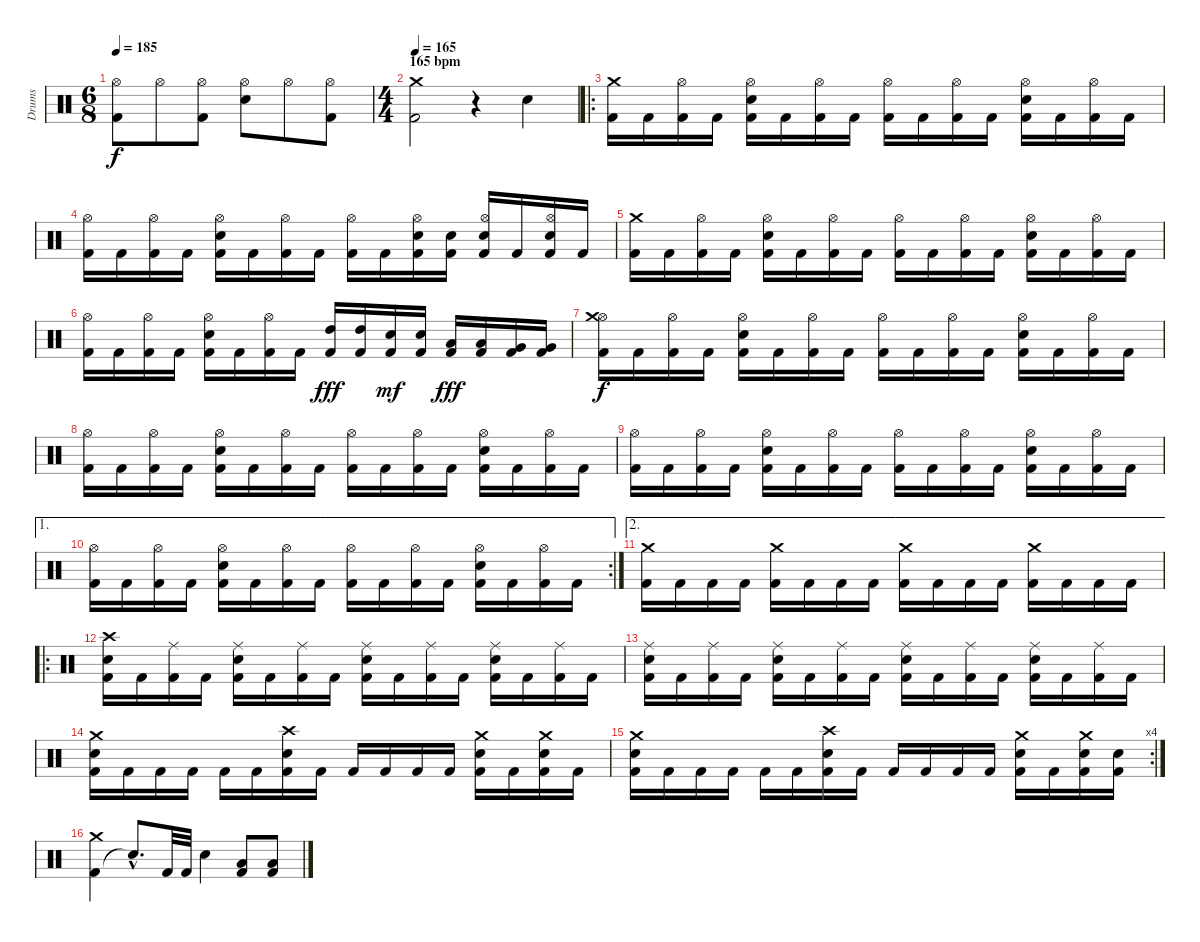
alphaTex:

\track ("Drums" "Drums") {instrument percussion}
\staff {score}
\articulation defaults
\ts (6 8)
\tempo 185
\clef neutral
\ks c
("Kick (hit) 2" "Hi-Hat (open)").8{dy f} "Hi-Hat (open)".8 ("Kick (hit) 2" "Hi-Hat (open)").8 ("Electric Snare (hit)" "Hi-Hat (open)").8 "Hi-Hat (open)".8 ("Kick (hit) 2" "Hi-Hat (open)").8 |
\ts (4 4)
\section ("" "165 bpm")
\tempo 165
("Kick (hit) 2" "Crash medium (hit)").2 r.4 "Electric Snare (hit)".4 |
\ro
("Kick (hit) 2" "Crash medium (hit)").16 "Kick (hit) 2".16 ("Kick (hit) 2" "Hi-Hat (open)").16 "Kick (hit) 2".16 ("Kick (hit) 2" "Electric Snare (hit)" "Hi-Hat (open)").16 "Kick (hit) 2".16 ("Kick (hit) 2" "Hi-Hat (open)").16 "Kick (hit) 2".16 ("Kick (hit) 2" "Hi-Hat (open)").16 "Kick (hit) 2".16 ("Kick (hit) 2" "Hi-Hat (open)").16 "Kick (hit) 2".16 ("Kick (hit) 2" "Electric Snare (hit)" "Hi-Hat (open)").16 "Kick (hit) 2".16 ("Kick (hit) 2" "Hi-Hat (open)").16 "Kick (hit) 2".16 |
("Kick (hit) 2" "Hi-Hat (open)").16 "Kick (hit) 2".16 ("Kick (hit) 2" "Hi-Hat (open)").16 "Kick (hit) 2".16 ("Kick (hit) 2" "Electric Snare (hit)" "Hi-Hat (open)").16 "Kick (hit) 2".16 ("Kick (hit) 2" "Hi-Hat (open)").16 "Kick (hit) 2".16 ("Kick (hit) 2" "Hi-Hat (open)").16 "Kick (hit) 2".16 ("Kick (hit) 2" "Electric Snare (hit)" "Hi-Hat (open)").16 ("Kick (hit) 2" "Electric Snare (hit)").16 ("Kick (hit) 2" "Electric Snare (hit)" "Hi-Hat (open)").16 "Kick (hit) 2".16 ("Kick (hit) 2" "Electric Snare (hit)" "Hi-Hat (open)").16 "Kick (hit) 2".16 |
("Kick (hit) 2" "Crash medium (hit)").16 "Kick (hit) 2".16 ("Kick (hit) 2" "Hi-Hat (open)").16 "Kick (hit) 2".16 ("Kick (hit) 2" "Electric Snare (hit)" "Hi-Hat (open)").16 "Kick (hit) 2".16 ("Kick (hit) 2" "Hi-Hat (open)").16 "Kick (hit) 2".16 ("Kick (hit) 2" "Hi-Hat (open)").16 "Kick (hit) 2".16 ("Kick (hit) 2" "Hi-Hat (open)").16 "Kick (hit) 2".16 ("Kick (hit) 2" "Electric Snare (hit)" "Hi-Hat (open)").16 "Kick (hit) 2".16 ("Kick (hit) 2" "Hi-Hat (open)").16 "Kick (hit) 2".16 |
("Kick (hit) 2" "Hi-Hat (open)").16 "Kick (hit) 2".16 ("Kick (hit) 2" "Hi-Hat (open)").16 "Kick (hit) 2".16 ("Kick (hit) 2" "Electric Snare (hit)" "Hi-Hat (open)").16 "Kick (hit) 2".16 ("Kick (hit) 2" "Hi-Hat (open)").16 "Kick (hit) 2".16 ("Kick (hit) 2" "High Tom (hit)").16{dy fff} ("Kick (hit) 2" "High Tom (hit)").16 ("Kick (hit) 2" "Electric Snare (hit)").16{dy mf} ("Kick (hit) 2" "Electric Snare (hit)").16 ("Kick (hit) 2" "Low Tom (hit)").16{dy fff} ("Kick (hit) 2" "Low Tom (hit)").16 ("Kick (hit) 2" "Very Low Tom (hit)").16 ("Kick (hit) 2" "Very Low Tom (hit)").16 |
("Kick (hit) 2" "Hi-Hat (open)" "Crash medium (hit)").16{dy f} "Kick (hit) 2".16 ("Kick (hit) 2" "Hi-Hat (open)").16 "Kick (hit) 2".16 ("Kick (hit) 2" "Electric Snare (hit)" "Hi-Hat (open)").16 "Kick (hit) 2".16 ("Kick (hit) 2" "Hi-Hat (open)").16 "Kick (hit) 2".16 ("Kick (hit) 2" "Hi-Hat (open)").16 "Kick (hit) 2".16 ("Kick (hit) 2" "Hi-Hat (open)").16 "Kick (hit) 2".16 ("Kick (hit) 2" "Electric Snare (hit)" "Hi-Hat (open)").16 "Kick (hit) 2".16 ("Kick (hit) 2" "Hi-Hat (open)").16 "Kick (hit) 2".16 |
("Kick (hit) 2" "Hi-Hat (open)").16 "Kick (hit) 2".16 ("Kick (hit) 2" "Hi-Hat (open)").16 "Kick (hit) 2".16 ("Kick (hit) 2" "Electric Snare (hit)" "Hi-Hat (open)").16 "Kick (hit) 2".16 ("Kick (hit) 2" "Hi-Hat (open)").16 "Kick (hit) 2".16 ("Kick (hit) 2" "Hi-Hat (open)").16 "Kick (hit) 2".16 ("Kick (hit) 2" "Hi-Hat (open)").16 "Kick (hit) 2".16 ("Kick (hit) 2" "Electric Snare (hit)" "Hi-Hat (open)").16 "Kick (hit) 2".16 ("Kick (hit) 2" "Hi-Hat (open)").16 "Kick (hit) 2".16 |
("Kick (hit) 2" "Hi-Hat (open)").16 "Kick (hit) 2".16 ("Kick (hit) 2" "Hi-Hat (open)").16 "Kick (hit) 2".16 ("Kick (hit) 2" "Electric Snare (hit)" "Hi-Hat (open)").16 "Kick (hit) 2".16 ("Kick (hit) 2" "Hi-Hat (open)").16 "Kick (hit) 2".16 ("Kick (hit) 2" "Hi-Hat (open)").16 "Kick (hit) 2".16 ("Kick (hit) 2" "Hi-Hat (open)").16 "Kick (hit) 2".16 ("Kick (hit) 2" "Electric Snare (hit)" "Hi-Hat (open)").16 "Kick (hit) 2".16 ("Kick (hit) 2" "Hi-Hat (open)").16 "Kick (hit) 2".16 |
\ae 1
\rc 2
("Kick (hit) 2" "Hi-Hat (open)").16 "Kick (hit) 2".16 ("Kick (hit) 2" "Hi-Hat (open)").16 "Kick (hit) 2".16 ("Kick (hit) 2" "Electric Snare (hit)" "Hi-Hat (open)").16 "Kick (hit) 2".16 ("Kick (hit) 2" "Hi-Hat (open)").16 "Kick (hit) 2".16 ("Kick (hit) 2" "Hi-Hat (open)").16 "Kick (hit) 2".16 ("Kick (hit) 2" "Hi-Hat (open)").16 "Kick (hit) 2".16 ("Kick (hit) 2" "Electric Snare (hit)" "Hi-Hat (open)").16 "Kick (hit) 2".16 ("Kick (hit) 2" "Hi-Hat (open)").16 "Kick (hit) 2".16 |
\ae 2
("Kick (hit) 2" "Crash medium (hit)").16 "Kick (hit) 2".16 "Kick (hit) 2".16 "Kick (hit) 2".16 ("Kick (hit) 2" "Crash medium (hit)").16 "Kick (hit) 2".16 "Kick (hit) 2".16 "Kick (hit) 2".16 ("Kick (hit) 2" "Crash medium (hit)").16 "Kick (hit) 2".16 "Kick (hit) 2".16 "Kick (hit) 2".16 ("Kick (hit) 2" "Crash medium (hit)").16 "Kick (hit) 2".16 "Kick (hit) 2".16 "Kick (hit) 2".16 |
\ro
("Kick (hit) 2" "Electric Snare (hit)" "Crash high (hit)").16 "Kick (hit) 2".16 ("Kick (hit) 2" "Ride (middle)").16 "Kick (hit) 2".16 ("Kick (hit) 2" "Electric Snare (hit)" "Ride (middle)").16 "Kick (hit) 2".16 ("Kick (hit) 2" "Ride (middle)").16 "Kick (hit) 2".16 ("Kick (hit) 2" "Electric Snare (hit)" "Ride (middle)").16 "Kick (hit) 2".16 ("Kick (hit) 2" "Ride (middle)").16 "Kick (hit) 2".16 ("Kick (hit) 2" "Electric Snare (hit)" "Ride (middle)").16 "Kick (hit) 2".16 ("Kick (hit) 2" "Ride (middle)").16 "Kick (hit) 2".16 |
("Kick (hit) 2" "Electric Snare (hit)" "Ride (middle)").16 "Kick (hit) 2".16 ("Kick (hit) 2" "Ride (middle)").16 "Kick (hit) 2".16 ("Kick (hit) 2" "Electric Snare (hit)" "Ride (middle)").16 "Kick (hit) 2".16 ("Kick (hit) 2" "Ride (middle)").16 "Kick (hit) 2".16 ("Kick (hit) 2" "Electric Snare (hit)" "Ride (middle)").16 "Kick (hit) 2".16 ("Kick (hit) 2" "Ride (middle)").16 "Kick (hit) 2".16 ("Kick (hit) 2" "Electric Snare (hit)" "Ride (middle)").16 "Kick (hit) 2".16 ("Kick (hit) 2" "Ride (middle)").16 "Kick (hit) 2".16 |
("Kick (hit) 2" "Electric Snare (hit)" "Crash medium (hit)").16 "Kick (hit) 2".16 "Kick (hit) 2".16 "Kick (hit) 2".16 "Kick (hit) 2".16 "Kick (hit) 2".16 ("Kick (hit) 2" "Electric Snare (hit)" "Crash high (hit)").16 "Kick (hit) 2".16 "Kick (hit) 2".16 "Kick (hit) 2".16 "Kick (hit) 2".16 "Kick (hit) 2".16 ("Kick (hit) 2" "Electric Snare (hit)" "Crash medium (hit)").16 "Kick (hit) 2".16 ("Kick (hit) 2" "Electric Snare (hit)" "Crash medium (hit)").16 "Kick (hit) 2".16 |
\rc 4
("Kick (hit) 2" "Electric Snare (hit)" "Crash medium (hit)").16 "Kick (hit) 2".16 "Kick (hit) 2".16 "Kick (hit) 2".16 "Kick (hit) 2".16 "Kick (hit) 2".16 ("Kick (hit) 2" "Electric Snare (hit)" "Crash high (hit)").16 "Kick (hit) 2".16 "Kick (hit) 2".16 "Kick (hit) 2".16 "Kick (hit) 2".16 "Kick (hit) 2".16 ("Kick (hit) 2" "Electric Snare (hit)" "Crash medium (hit)").16 "Kick (hit) 2".16 ("Kick (hit) 2" "Electric Snare (hit)" "Crash medium (hit)").16 ("Kick (hit) 2" "Electric Snare (hit)").16 |
("Kick (hit) 2" "Crash medium (hit)").4 "Snare (hit)"{hac t}.8{d} "Kick (hit) 2".32 "Kick (hit) 2".32 "Electric Snare (hit)".4 ("Kick (hit) 2" "Low Tom (hit)").8 ("Kick (hit) 2" "Low Tom (hit)").8
